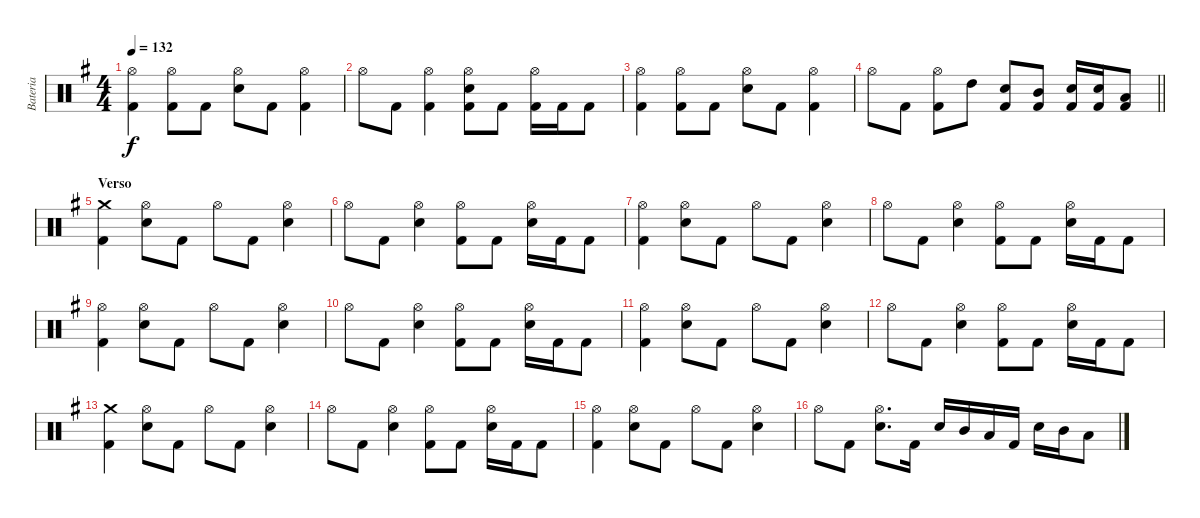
\track ("Bateria" "Bateria") {instrument percussion}
\staff {score}
\articulation defaults
\ts (4 4)
\tempo 132
\clef neutral
\ks eminor
("Hi-Hat (open)" "Kick (hit) 2").4{dy f} ("Hi-Hat (open)" "Kick (hit) 2").8 "Kick (hit) 2".8 ("Hi-Hat (open)" "Electric Snare (hit)").8 "Kick (hit) 2".8 ("Hi-Hat (open)" "Kick (hit) 2").4 |
"Hi-Hat (open)".8 "Kick (hit) 2".8 ("Hi-Hat (open)" "Kick (hit) 2").4 ("Hi-Hat (open)" "Electric Snare (hit)" "Kick (hit) 2").8 "Kick (hit) 2".8 ("Hi-Hat (open)" "Kick (hit) 2").16 "Kick (hit) 2".16 "Kick (hit) 2".8 |
("Hi-Hat (open)" "Kick (hit) 2").4 ("Hi-Hat (open)" "Kick (hit) 2").8 "Kick (hit) 2".8 ("Hi-Hat (open)" "Electric Snare (hit)").8 "Kick (hit) 2".8 ("Hi-Hat (open)" "Kick (hit) 2").4 |
\barLineRight lightlight "Hi-Hat (open)".8 "Kick (hit) 2".8
("Hi-Hat (open)" "Kick (hit) 2").8 "High Tom (hit)".8 ("Electric Snare (hit)" "Kick (hit) 2").8 ("Mid Tom (hit)" "Kick (hit) 2").8 ("Electric Snare (hit)" "Kick (hit) 2").16 ("Electric Snare (hit)" "Kick (hit) 2").16 ("Low Tom (hit)" "Kick (hit) 2").8 |
\section ("" "Verso")
("Crash medium (hit)" "Kick (hit) 2").4 ("Hi-Hat (open)" "Electric Snare (hit)").8 "Kick (hit) 2".8 "Hi-Hat (open)".8 "Kick (hit) 2".8 ("Hi-Hat (open)" "Electric Snare (hit)").4 |
"Hi-Hat (open)".8 "Kick (hit) 2".8 ("Hi-Hat (open)" "Electric Snare (hit)").4 ("Hi-Hat (open)" "Kick (hit) 2").8 "Kick (hit) 2".8 ("Hi-Hat (open)" "Electric Snare (hit)").16 "Kick (hit) 2".16 "Kick (hit) 2".8 |
("Hi-Hat (open)" "Kick (hit) 2").4 ("Hi-Hat (open)" "Electric Snare (hit)").8 "Kick (hit) 2".8 "Hi-Hat (open)".8 "Kick (hit) 2".8 ("Hi-Hat (open)" "Electric Snare (hit)").4 |
"Hi-Hat (open)".8 "Kick (hit) 2".8 ("Hi-Hat (open)" "Electric Snare (hit)").4 ("Hi-Hat (open)" "Kick (hit) 2").8 "Kick (hit) 2".8 ("Hi-Hat (open)" "Electric Snare (hit)").16 "Kick (hit) 2".16 "Kick (hit) 2".8 |
("Hi-Hat (open)" "Kick (hit) 2").4 ("Hi-Hat (open)" "Electric Snare (hit)").8 "Kick (hit) 2".8 "Hi-Hat (open)".8 "Kick (hit) 2".8 ("Hi-Hat (open)" "Electric Snare (hit)").4 |
"Hi-Hat (open)".8 "Kick (hit) 2".8 ("Hi-Hat (open)" "Electric Snare (hit)").4 ("Hi-Hat (open)" "Kick (hit) 2").8 "Kick (hit) 2".8 ("Hi-Hat (open)" "Electric Snare (hit)").16 "Kick (hit) 2".16 "Kick (hit) 2".8 |
("Hi-Hat (open)" "Kick (hit) 2").4 ("Hi-Hat (open)" "Electric Snare (hit)").8 "Kick (hit) 2".8 "Hi-Hat (open)".8 "Kick (hit) 2".8 ("Hi-Hat (open)" "Electric Snare (hit)").4 |
"Hi-Hat (open)".8 "Kick (hit) 2".8 ("Hi-Hat (open)" "Electric Snare (hit)").4 ("Hi-Hat (open)" "Kick (hit) 2").8 "Kick (hit) 2".8 ("Hi-Hat (open)" "Electric Snare (hit)").16 "Kick (hit) 2".16 "Kick (hit) 2".8 |
("Crash medium (hit)" "Kick (hit) 2").4 ("Hi-Hat (open)" "Electric Snare (hit)").8 "Kick (hit) 2".8 "Hi-Hat (open)".8 "Kick (hit) 2".8 ("Hi-Hat (open)" "Electric Snare (hit)").4 |
"Hi-Hat (open)".8 "Kick (hit) 2".8 ("Hi-Hat (open)" "Electric Snare (hit)").4 ("Hi-Hat (open)" "Kick (hit) 2").8 "Kick (hit) 2".8 ("Hi-Hat (open)" "Electric Snare (hit)").16 "Kick (hit) 2".16 "Kick (hit) 2".8 |
("Hi-Hat (open)" "Kick (hit) 2").4 ("Hi-Hat (open)" "Electric Snare (hit)").8 "Kick (hit) 2".8 "Hi-Hat (open)".8 "Kick (hit) 2".8 ("Hi-Hat (open)" "Electric Snare (hit)").4 |
"Hi-Hat (open)".8 "Kick (hit) 2".8 ("Hi-Hat (open)" "Electric Snare (hit)").8{d} "Kick (hit) 2".16 "Electric Snare (hit)".16 "Mid Tom (hit)".16 "Low Tom (hit)".16 "Kick (hit) 2".16 "Electric Snare (hit)".16 "Mid Tom (hit)".16 "Low Tom (hit)".8
